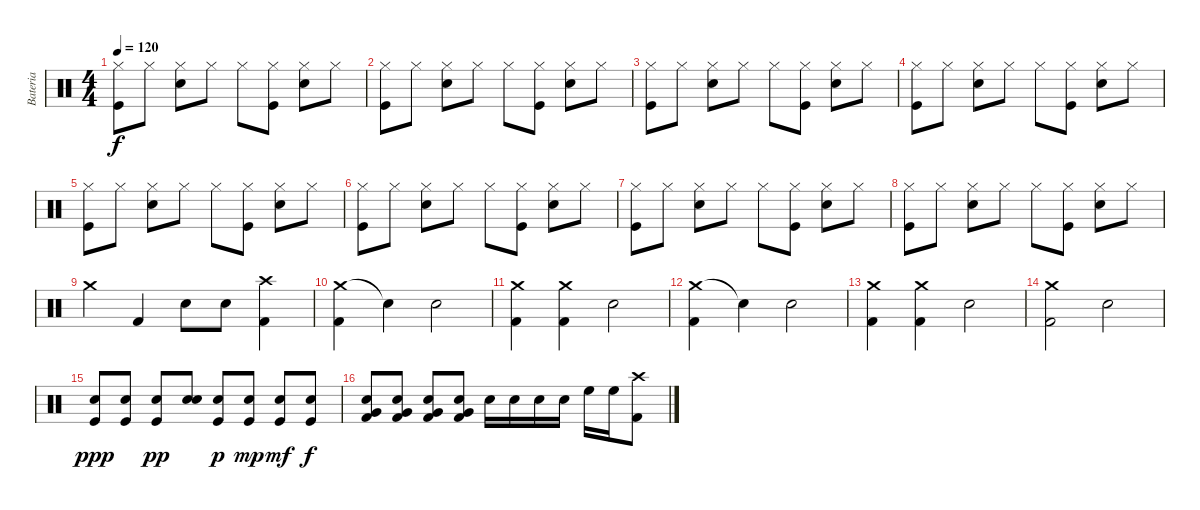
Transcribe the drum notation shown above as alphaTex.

\track ("Bateria" "Bateria") {instrument percussion}
\staff {score}
\articulation defaults
\ts (4 4)
\tempo 120
\clef neutral
\ks c
("Hi-Hat (closed)" "Kick (hit)").8{dy f} "Hi-Hat (closed)".8 ("Hi-Hat (closed)" "Snare (hit) 2").8 "Hi-Hat (closed)".8 "Hi-Hat (closed)".8 ("Hi-Hat (closed)" "Kick (hit)").8 ("Hi-Hat (closed)" "Snare (hit) 2").8 "Hi-Hat (closed)".8 |
("Hi-Hat (closed)" "Kick (hit)").8 "Hi-Hat (closed)".8 ("Hi-Hat (closed)" "Snare (hit) 2").8 "Hi-Hat (closed)".8 "Hi-Hat (closed)".8 ("Hi-Hat (closed)" "Kick (hit)").8 ("Hi-Hat (closed)" "Snare (hit) 2").8 "Hi-Hat (closed)".8 |
("Hi-Hat (closed)" "Kick (hit)").8 "Hi-Hat (closed)".8 ("Hi-Hat (closed)" "Snare (hit) 2").8 "Hi-Hat (closed)".8 "Hi-Hat (closed)".8 ("Hi-Hat (closed)" "Kick (hit)").8 ("Hi-Hat (closed)" "Snare (hit) 2").8 "Hi-Hat (closed)".8 |
("Hi-Hat (closed)" "Kick (hit)").8 "Hi-Hat (closed)".8 ("Hi-Hat (closed)" "Snare (hit) 2").8 "Hi-Hat (closed)".8 "Hi-Hat (closed)".8 ("Hi-Hat (closed)" "Kick (hit)").8 ("Hi-Hat (closed)" "Snare (hit) 2").8 "Hi-Hat (closed)".8 |
("Hi-Hat (closed)" "Kick (hit)").8 "Hi-Hat (closed)".8 ("Hi-Hat (closed)" "Snare (hit) 2").8 "Hi-Hat (closed)".8 "Hi-Hat (closed)".8 ("Hi-Hat (closed)" "Kick (hit)").8 ("Hi-Hat (closed)" "Snare (hit) 2").8 "Hi-Hat (closed)".8 |
("Hi-Hat (closed)" "Kick (hit)").8 "Hi-Hat (closed)".8 ("Hi-Hat (closed)" "Snare (hit) 2").8 "Hi-Hat (closed)".8 "Hi-Hat (closed)".8 ("Hi-Hat (closed)" "Kick (hit)").8 ("Hi-Hat (closed)" "Snare (hit) 2").8 "Hi-Hat (closed)".8 |
("Hi-Hat (closed)" "Kick (hit)").8 "Hi-Hat (closed)".8 ("Hi-Hat (closed)" "Snare (hit) 2").8 "Hi-Hat (closed)".8 "Hi-Hat (closed)".8 ("Hi-Hat (closed)" "Kick (hit)").8 ("Hi-Hat (closed)" "Snare (hit) 2").8 "Hi-Hat (closed)".8 |
("Hi-Hat (closed)" "Kick (hit)").8 "Hi-Hat (closed)".8 ("Hi-Hat (closed)" "Snare (hit) 2").8 "Hi-Hat (closed)".8 "Hi-Hat (closed)".8 ("Hi-Hat (closed)" "Kick (hit)").8 ("Hi-Hat (closed)" "Snare (hit) 2").8 "Hi-Hat (closed)".8 |
"Crash medium (hit)".4 "Kick (hit) 2".4 "Snare (hit) 2".8 "Snare (hit) 2".8 ("Crash high (hit)" "Kick (hit) 2").4 |
("Crash medium (hit)" "Kick (hit) 2").4 "Snare (hit)"{t}.4 "Snare (hit) 2".2 |
("Crash medium (hit)" "Kick (hit) 2").4 ("Crash medium (hit)" "Kick (hit) 2").4 "Snare (hit) 2".2 |
("Crash medium (hit)" "Kick (hit) 2").4 "Snare (hit)"{t}.4 "Snare (hit) 2".2 |
("Crash medium (hit)" "Kick (hit) 2").4 ("Crash medium (hit)" "Kick (hit) 2").4 "Snare (hit) 2".2 |
("Crash medium (hit)" "Kick (hit) 2").2 "Snare (hit) 2".2 |
("Kick (hit)" "Snare (hit) 2").8{dy ppp} ("Snare (hit) 2" "Kick (hit)").8 ("Snare (hit) 2" "Kick (hit)").8{dy pp} ("Snare (hit) 2" "Snare (hit) 2").8 ("Snare (hit) 2" "Kick (hit)").8{dy p} ("Snare (hit) 2" "Kick (hit)").8{dy mp} ("Snare (hit) 2" "Kick (hit)").8{dy mf} ("Snare (hit) 2" "Kick (hit)").8{dy f} |
("Snare (hit) 2" "Very Low Tom (hit)" "Kick (hit) 2").8 ("Snare (hit) 2" "Very Low Tom (hit)" "Kick (hit) 2").8 ("Snare (hit) 2" "Very Low Tom (hit)" "Kick (hit) 2").8 ("Snare (hit) 2" "Very Low Tom (hit)" "Kick (hit) 2").8{volume 16} "Snare (hit) 2".16 "Snare (hit) 2".16 "Snare (hit) 2".16 "Snare (hit) 2".16 "High Floor Tom (hit)".16 "High Floor Tom (hit)".16 ("Crash high (hit)" "Kick (hit) 2").8
